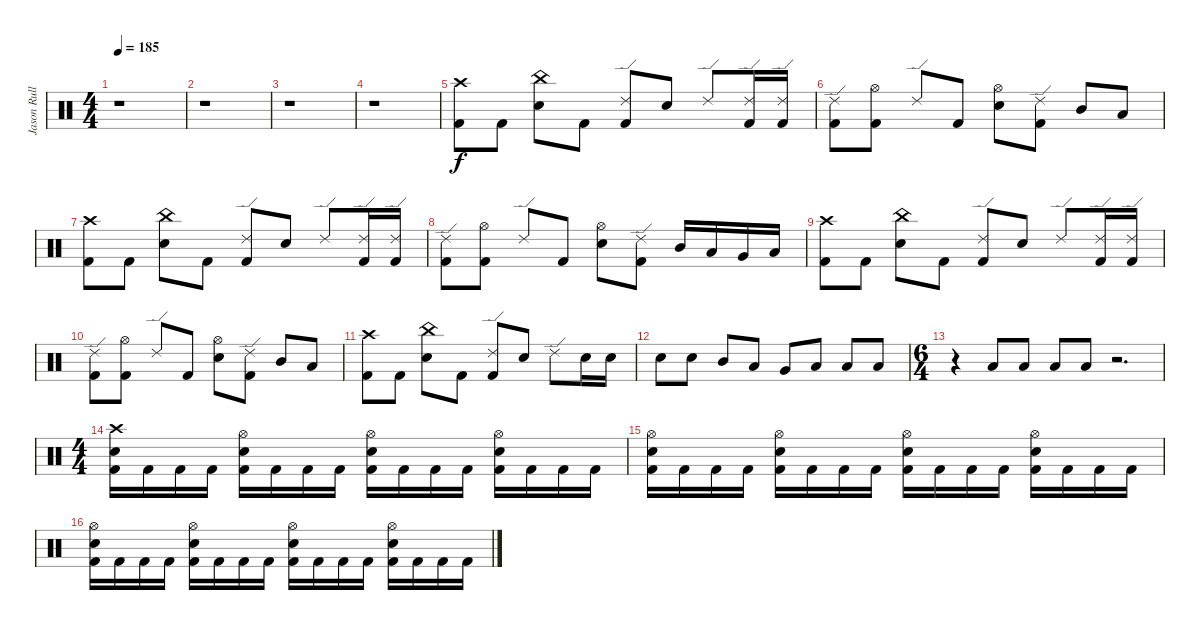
\track ("Jason Rullo" "Jason Rull") {instrument percussion}
\staff {score}
\articulation defaults
\ts (4 4)
\tempo 185
\clef neutral
\ks c
r.1{dy f} |
r.1 |
r.1 |
r.1 |
("Crash high (hit)" "Kick (hit) 2").8 "Kick (hit) 2".8 ("China (hit)" "Snare (hit) 2").8 "Kick (hit) 2".8 ("Ride (edge) 2" "Kick (hit) 2").8 "Snare (hit) 2".8 "Ride (edge) 2".8 ("Ride (edge) 2" "Kick (hit) 2").16 ("Ride (edge) 2" "Kick (hit) 2").16 |
("Ride (edge) 2" "Kick (hit) 2").8 ("Hi-Hat (open)" "Kick (hit) 2").8 "Ride (edge) 2".8 "Kick (hit) 2".8 ("Hi-Hat (open)" "Snare (hit) 2").8 ("Ride (edge) 2" "Kick (hit) 2").8 "Mid Tom (hit)".8 "Low Tom (hit)".8 |
("Crash high (hit)" "Kick (hit) 2").8 "Kick (hit) 2".8 ("China (hit)" "Snare (hit) 2").8 "Kick (hit) 2".8 ("Ride (edge) 2" "Kick (hit) 2").8 "Snare (hit) 2".8 "Ride (edge) 2".8 ("Ride (edge) 2" "Kick (hit) 2").16 ("Ride (edge) 2" "Kick (hit) 2").16 |
("Ride (edge) 2" "Kick (hit) 2").8 ("Hi-Hat (open)" "Kick (hit) 2").8 "Ride (edge) 2".8 "Kick (hit) 2".8 ("Hi-Hat (open)" "Snare (hit) 2").8 ("Ride (edge) 2" "Kick (hit) 2").8 "Mid Tom (hit)".16 "Low Tom (hit)".16 "Very Low Tom (hit)".16 "Low Floor Tom (hit)".16 |
("Crash high (hit)" "Kick (hit) 2").8 "Kick (hit) 2".8 ("China (hit)" "Snare (hit) 2").8 "Kick (hit) 2".8 ("Ride (edge) 2" "Kick (hit) 2").8 "Snare (hit) 2".8 "Ride (edge) 2".8 ("Ride (edge) 2" "Kick (hit) 2").16 ("Ride (edge) 2" "Kick (hit) 2").16 |
("Ride (edge) 2" "Kick (hit) 2").8 ("Hi-Hat (open)" "Kick (hit) 2").8 "Ride (edge) 2".8 "Kick (hit) 2".8 ("Hi-Hat (open)" "Snare (hit) 2").8 ("Ride (edge) 2" "Kick (hit) 2").8 "Mid Tom (hit)".8 "Low Tom (hit)".8 |
("Crash high (hit)" "Kick (hit) 2").8 "Kick (hit) 2".8 ("China (hit)" "Snare (hit) 2").8 "Kick (hit) 2".8 ("Ride (edge) 2" "Kick (hit) 2").8 "Snare (hit) 2".8 "Ride (edge) 2".8 "Snare (hit) 2".16 "Snare (hit) 2".16 |
"Snare (hit) 2".8 "Snare (hit) 2".8 "Mid Tom (hit)".8 "Low Tom (hit)".8 "Very Low Tom (hit)".8 "Low Floor Tom (hit)".8 "Low Floor Tom (hit)".8 "Low Floor Tom (hit)".8 |
\ts (6 4)
r.4 "Low Floor Tom (hit)".8 "Low Floor Tom (hit)".8 "Low Floor Tom (hit)".8 "Low Floor Tom (hit)".8 r.2{d} |
\ts (4 4)
("Crash high (hit)" "Snare (hit) 2" "Kick (hit) 2").16 "Kick (hit) 2".16 "Kick (hit) 2".16 "Kick (hit) 2".16 ("Hi-Hat (open)" "Snare (hit) 2" "Kick (hit) 2").16 "Kick (hit) 2".16 "Kick (hit) 2".16 "Kick (hit) 2".16 ("Hi-Hat (open)" "Snare (hit) 2" "Kick (hit) 2").16 "Kick (hit) 2".16 "Kick (hit) 2".16 "Kick (hit) 2".16 ("Hi-Hat (open)" "Snare (hit) 2" "Kick (hit) 2").16 "Kick (hit) 2".16 "Kick (hit) 2".16 "Kick (hit) 2".16 |
("Hi-Hat (open)" "Snare (hit) 2" "Kick (hit) 2").16 "Kick (hit) 2".16 "Kick (hit) 2".16 "Kick (hit) 2".16 ("Hi-Hat (open)" "Snare (hit) 2" "Kick (hit) 2").16 "Kick (hit) 2".16 "Kick (hit) 2".16 "Kick (hit) 2".16 ("Hi-Hat (open)" "Snare (hit) 2" "Kick (hit) 2").16 "Kick (hit) 2".16 "Kick (hit) 2".16 "Kick (hit) 2".16 ("Hi-Hat (open)" "Snare (hit) 2" "Kick (hit) 2").16 "Kick (hit) 2".16 "Kick (hit) 2".16 "Kick (hit) 2".16 |
("Hi-Hat (open)" "Snare (hit) 2" "Kick (hit) 2").16 "Kick (hit) 2".16 "Kick (hit) 2".16 "Kick (hit) 2".16 ("Hi-Hat (open)" "Snare (hit) 2" "Kick (hit) 2").16 "Kick (hit) 2".16 "Kick (hit) 2".16 "Kick (hit) 2".16 ("Hi-Hat (open)" "Snare (hit) 2" "Kick (hit) 2").16 "Kick (hit) 2".16 "Kick (hit) 2".16 "Kick (hit) 2".16 ("Hi-Hat (open)" "Snare (hit) 2" "Kick (hit) 2").16 "Kick (hit) 2".16 "Kick (hit) 2".16 "Kick (hit) 2".16
